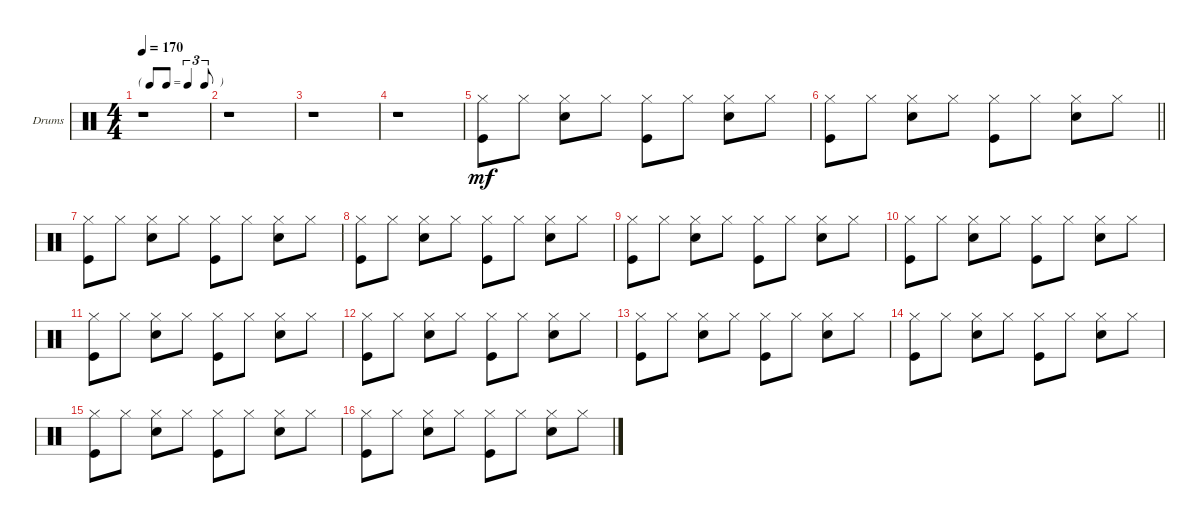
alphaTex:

\defaultSystemsLayout 4
\bracketExtendMode groupsimilarinstruments
\firstSystemTrackNameOrientation horizontal
\otherSystemsTrackNameOrientation horizontal
\track ("Drumkit" "Drums") {instrument percussion}
\staff {score}
\articulation defaults
\ts (4 4)
\tf triplet8th
\tempo 170
\clef neutral
\scale
0.472222
\ks c
r.1{dy mf} |
\scale
0.263889 r.1 |
\scale
0.263889 r.1 |
\scale
0.333333 r.1 |
\scale
0.333333 ("Hi-Hat (closed)" "Kick (hit)").8 "Hi-Hat (closed)".8 ("Hi-Hat (closed)" "Snare (hit) 2").8 "Hi-Hat (closed)".8 ("Hi-Hat (closed)" "Kick (hit)").8 "Hi-Hat (closed)".8 ("Hi-Hat (closed)" "Snare (hit) 2").8 "Hi-Hat (closed)".8 |
\scale
0.333333
\barLineRight lightlight
("Hi-Hat (closed)" "Kick (hit)").8 "Hi-Hat (closed)".8 ("Hi-Hat (closed)" "Snare (hit) 2").8 "Hi-Hat (closed)".8 ("Hi-Hat (closed)" "Kick (hit)").8 "Hi-Hat (closed)".8 ("Hi-Hat (closed)" "Snare (hit) 2").8 "Hi-Hat (closed)".8 |
\scale
0.333333 ("Hi-Hat (closed)" "Kick (hit)").8 "Hi-Hat (closed)".8 ("Hi-Hat (closed)" "Snare (hit) 2").8 "Hi-Hat (closed)".8 ("Hi-Hat (closed)" "Kick (hit)").8 "Hi-Hat (closed)".8 ("Hi-Hat (closed)" "Snare (hit) 2").8 "Hi-Hat (closed)".8 |
\scale
0.333333 ("Hi-Hat (closed)" "Kick (hit)").8 "Hi-Hat (closed)".8 ("Hi-Hat (closed)" "Snare (hit) 2").8 "Hi-Hat (closed)".8 ("Hi-Hat (closed)" "Kick (hit)").8 "Hi-Hat (closed)".8 ("Hi-Hat (closed)" "Snare (hit) 2").8 "Hi-Hat (closed)".8 |
\scale
0.333333 ("Hi-Hat (closed)" "Kick (hit)").8 "Hi-Hat (closed)".8 ("Hi-Hat (closed)" "Snare (hit) 2").8 "Hi-Hat (closed)".8 ("Hi-Hat (closed)" "Kick (hit)").8 "Hi-Hat (closed)".8 ("Hi-Hat (closed)" "Snare (hit) 2").8 "Hi-Hat (closed)".8 |
\scale
0.333333 ("Hi-Hat (closed)" "Kick (hit)").8 "Hi-Hat (closed)".8 ("Hi-Hat (closed)" "Snare (hit) 2").8 "Hi-Hat (closed)".8 ("Hi-Hat (closed)" "Kick (hit)").8 "Hi-Hat (closed)".8 ("Hi-Hat (closed)" "Snare (hit) 2").8 "Hi-Hat (closed)".8 |
\scale
0.333333 ("Hi-Hat (closed)" "Kick (hit)").8 "Hi-Hat (closed)".8 ("Hi-Hat (closed)" "Snare (hit) 2").8 "Hi-Hat (closed)".8 ("Hi-Hat (closed)" "Kick (hit)").8 "Hi-Hat (closed)".8 ("Hi-Hat (closed)" "Snare (hit) 2").8 "Hi-Hat (closed)".8 |
\scale
0.333333 ("Hi-Hat (closed)" "Kick (hit)").8 "Hi-Hat (closed)".8 ("Hi-Hat (closed)" "Snare (hit) 2").8 "Hi-Hat (closed)".8 ("Hi-Hat (closed)" "Kick (hit)").8 "Hi-Hat (closed)".8 ("Hi-Hat (closed)" "Snare (hit) 2").8 "Hi-Hat (closed)".8 |
\scale
0.333333 ("Hi-Hat (closed)" "Kick (hit)").8 "Hi-Hat (closed)".8 ("Hi-Hat (closed)" "Snare (hit) 2").8 "Hi-Hat (closed)".8 ("Hi-Hat (closed)" "Kick (hit)").8 "Hi-Hat (closed)".8 ("Hi-Hat (closed)" "Snare (hit) 2").8 "Hi-Hat (closed)".8 |
\scale
0.333333 ("Hi-Hat (closed)" "Kick (hit)").8 "Hi-Hat (closed)".8 ("Hi-Hat (closed)" "Snare (hit) 2").8 "Hi-Hat (closed)".8 ("Hi-Hat (closed)" "Kick (hit)").8 "Hi-Hat (closed)".8 ("Hi-Hat (closed)" "Snare (hit) 2").8 "Hi-Hat (closed)".8 |
\scale
0.333333 ("Hi-Hat (closed)" "Kick (hit)").8 "Hi-Hat (closed)".8 ("Hi-Hat (closed)" "Snare (hit) 2").8 "Hi-Hat (closed)".8 ("Hi-Hat (closed)" "Kick (hit)").8 "Hi-Hat (closed)".8 ("Hi-Hat (closed)" "Snare (hit) 2").8 "Hi-Hat (closed)".8 |
\scale
0.333333 ("Hi-Hat (closed)" "Kick (hit)").8 "Hi-Hat (closed)".8 ("Hi-Hat (closed)" "Snare (hit) 2").8 "Hi-Hat (closed)".8 ("Hi-Hat (closed)" "Kick (hit)").8 "Hi-Hat (closed)".8 ("Hi-Hat (closed)" "Snare (hit) 2").8 "Hi-Hat (closed)".8
